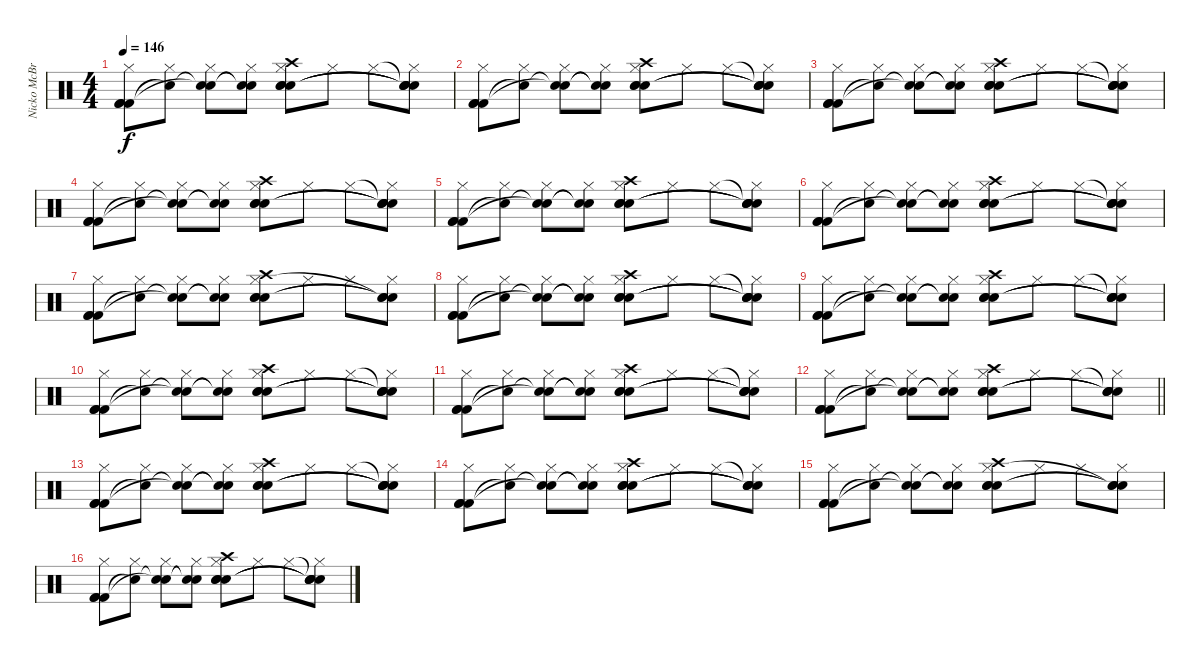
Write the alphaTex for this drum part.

\track ("Nicko McBrain" "Nicko McBr") {instrument percussion}
\staff {score}
\articulation defaults
\ts (4 4)
\tempo 146
\clef neutral
\ks c
("Hi-Hat (closed)" "Kick (hit) 2" "Kick (hit) 2" "Kick (hit) 2").8{dy f} ("Hi-Hat (closed)" "Snare (hit)"{t}).8 ("Hi-Hat (closed)" "Snare (hit)"{t} "Snare (hit)"{t}).8 ("Hi-Hat (closed)" "Snare (hit)"{t} "Snare (hit)"{t}).8 ("Crash high (hit)" "Hi-Hat (closed)" "Snare (hit) 2" "Snare (hit) 2" "Snare (hit) 2").8 "Hi-Hat (closed)".8 "Hi-Hat (closed)".8 ("Snare (hit)"{t} "Hi-Hat (closed)" "Snare (hit)"{t} "Snare (hit)"{t} "Snare (hit)"{t}).8 |
("Hi-Hat (closed)" "Kick (hit) 2" "Kick (hit) 2" "Kick (hit) 2").8 ("Hi-Hat (closed)" "Snare (hit)"{t}).8 ("Hi-Hat (closed)" "Snare (hit)"{t} "Snare (hit)"{t}).8 ("Hi-Hat (closed)" "Snare (hit)"{t} "Snare (hit)"{t}).8 ("Crash high (hit)" "Hi-Hat (closed)" "Snare (hit) 2" "Snare (hit) 2" "Snare (hit) 2").8 "Hi-Hat (closed)".8 "Hi-Hat (closed)".8 ("Snare (hit)"{t} "Hi-Hat (closed)" "Snare (hit)"{t} "Snare (hit)"{t} "Snare (hit)"{t}).8 |
("Hi-Hat (closed)" "Kick (hit) 2" "Kick (hit) 2" "Kick (hit) 2").8 ("Hi-Hat (closed)" "Snare (hit)"{t}).8 ("Hi-Hat (closed)" "Snare (hit)"{t} "Snare (hit)"{t}).8 ("Hi-Hat (closed)" "Snare (hit)"{t} "Snare (hit)"{t}).8 ("Crash high (hit)" "Hi-Hat (closed)" "Snare (hit) 2" "Snare (hit) 2" "Snare (hit) 2").8 "Hi-Hat (closed)".8 "Hi-Hat (closed)".8 ("Snare (hit)"{t} "Hi-Hat (closed)" "Snare (hit)"{t} "Snare (hit)"{t} "Snare (hit)"{t}).8 |
("Hi-Hat (closed)" "Kick (hit) 2" "Kick (hit) 2" "Kick (hit) 2").8 ("Hi-Hat (closed)" "Snare (hit)"{t}).8 ("Hi-Hat (closed)" "Snare (hit)"{t} "Snare (hit)"{t}).8 ("Hi-Hat (closed)" "Snare (hit)"{t} "Snare (hit)"{t}).8 ("Crash high (hit)" "Hi-Hat (closed)" "Snare (hit) 2" "Snare (hit) 2" "Snare (hit) 2").8 "Hi-Hat (closed)".8 "Hi-Hat (closed)".8 ("Snare (hit)"{t} "Hi-Hat (closed)" "Snare (hit)"{t} "Snare (hit)"{t} "Snare (hit)"{t}).8 |
("Hi-Hat (closed)" "Kick (hit) 2" "Kick (hit) 2" "Kick (hit) 2").8 ("Hi-Hat (closed)" "Snare (hit)"{t}).8 ("Hi-Hat (closed)" "Snare (hit)"{t} "Snare (hit)"{t}).8 ("Hi-Hat (closed)" "Snare (hit)"{t} "Snare (hit)"{t}).8 ("Crash high (hit)" "Hi-Hat (closed)" "Snare (hit) 2" "Snare (hit) 2" "Snare (hit) 2").8 "Hi-Hat (closed)".8 "Hi-Hat (closed)".8 ("Snare (hit)"{t} "Hi-Hat (closed)" "Snare (hit)"{t} "Snare (hit)"{t} "Snare (hit)"{t}).8 |
("Hi-Hat (closed)" "Kick (hit) 2" "Kick (hit) 2" "Kick (hit) 2").8 ("Hi-Hat (closed)" "Snare (hit)"{t}).8 ("Hi-Hat (closed)" "Snare (hit)"{t} "Snare (hit)"{t}).8 ("Hi-Hat (closed)" "Snare (hit)"{t} "Snare (hit)"{t}).8 ("Crash high (hit)" "Hi-Hat (closed)" "Snare (hit) 2" "Snare (hit) 2" "Snare (hit) 2").8 "Hi-Hat (closed)".8 "Hi-Hat (closed)".8 ("Snare (hit)"{t} "Hi-Hat (closed)" "Snare (hit)"{t} "Snare (hit)"{t} "Snare (hit)"{t}).8 |
("Hi-Hat (closed)" "Kick (hit) 2" "Kick (hit) 2" "Kick (hit) 2").8 ("Hi-Hat (closed)" "Snare (hit)"{t}).8 ("Hi-Hat (closed)" "Snare (hit)"{t} "Snare (hit)"{t}).8 ("Hi-Hat (closed)" "Snare (hit)"{t} "Snare (hit)"{t}).8 ("Crash high (hit)" "Hi-Hat (closed)" "Snare (hit) 2" "Snare (hit) 2" "Snare (hit) 2").8 "Hi-Hat (closed)".8 "Hi-Hat (closed)".8 ("Hi-Hat (closed)" "Snare (hit)"{t} "Snare (hit)"{t} "Snare (hit)"{t}).8 |
("Hi-Hat (closed)" "Kick (hit) 2" "Kick (hit) 2" "Kick (hit) 2").8 ("Hi-Hat (closed)" "Snare (hit)"{t}).8 ("Hi-Hat (closed)" "Snare (hit)"{t} "Snare (hit)"{t}).8 ("Hi-Hat (closed)" "Snare (hit)"{t} "Snare (hit)"{t}).8 ("Crash high (hit)" "Hi-Hat (closed)" "Snare (hit) 2" "Snare (hit) 2" "Snare (hit) 2").8 "Hi-Hat (closed)".8 "Hi-Hat (closed)".8 ("Snare (hit)"{t} "Hi-Hat (closed)" "Snare (hit)"{t} "Snare (hit)"{t} "Snare (hit)"{t}).8 |
("Hi-Hat (closed)" "Kick (hit) 2" "Kick (hit) 2" "Kick (hit) 2").8 ("Hi-Hat (closed)" "Snare (hit)"{t}).8 ("Hi-Hat (closed)" "Snare (hit)"{t} "Snare (hit)"{t}).8 ("Hi-Hat (closed)" "Snare (hit)"{t} "Snare (hit)"{t}).8 ("Crash high (hit)" "Hi-Hat (closed)" "Snare (hit) 2" "Snare (hit) 2" "Snare (hit) 2").8 "Hi-Hat (closed)".8 "Hi-Hat (closed)".8 ("Snare (hit)"{t} "Hi-Hat (closed)" "Snare (hit)"{t} "Snare (hit)"{t} "Snare (hit)"{t}).8 |
("Hi-Hat (closed)" "Kick (hit) 2" "Kick (hit) 2" "Kick (hit) 2").8 ("Hi-Hat (closed)" "Snare (hit)"{t}).8 ("Hi-Hat (closed)" "Snare (hit)"{t} "Snare (hit)"{t}).8 ("Hi-Hat (closed)" "Snare (hit)"{t} "Snare (hit)"{t}).8 ("Crash high (hit)" "Hi-Hat (closed)" "Snare (hit) 2" "Snare (hit) 2" "Snare (hit) 2").8 "Hi-Hat (closed)".8 "Hi-Hat (closed)".8 ("Snare (hit)"{t} "Hi-Hat (closed)" "Snare (hit)"{t} "Snare (hit)"{t} "Snare (hit)"{t}).8 |
("Hi-Hat (closed)" "Kick (hit) 2" "Kick (hit) 2" "Kick (hit) 2").8 ("Hi-Hat (closed)" "Snare (hit)"{t}).8 ("Hi-Hat (closed)" "Snare (hit)"{t} "Snare (hit)"{t}).8 ("Hi-Hat (closed)" "Snare (hit)"{t} "Snare (hit)"{t}).8 ("Crash high (hit)" "Hi-Hat (closed)" "Snare (hit) 2" "Snare (hit) 2" "Snare (hit) 2").8 "Hi-Hat (closed)".8 "Hi-Hat (closed)".8 ("Snare (hit)"{t} "Hi-Hat (closed)" "Snare (hit)"{t} "Snare (hit)"{t} "Snare (hit)"{t}).8 |
\barLineRight lightlight
("Hi-Hat (closed)" "Kick (hit) 2" "Kick (hit) 2" "Kick (hit) 2").8 ("Hi-Hat (closed)" "Snare (hit)"{t}).8 ("Hi-Hat (closed)" "Snare (hit)"{t} "Snare (hit)"{t}).8 ("Hi-Hat (closed)" "Snare (hit)"{t} "Snare (hit)"{t}).8 ("Crash high (hit)" "Hi-Hat (closed)" "Snare (hit) 2" "Snare (hit) 2" "Snare (hit) 2").8 "Hi-Hat (closed)".8 "Hi-Hat (closed)".8 ("Snare (hit)"{t} "Hi-Hat (closed)" "Snare (hit)"{t} "Snare (hit)"{t} "Snare (hit)"{t}).8 |
("Hi-Hat (closed)" "Kick (hit) 2" "Kick (hit) 2" "Kick (hit) 2").8 ("Hi-Hat (closed)" "Snare (hit)"{t}).8 ("Hi-Hat (closed)" "Snare (hit)"{t} "Snare (hit)"{t}).8 ("Hi-Hat (closed)" "Snare (hit)"{t} "Snare (hit)"{t}).8 ("Crash high (hit)" "Hi-Hat (closed)" "Snare (hit) 2" "Snare (hit) 2" "Snare (hit) 2").8 "Hi-Hat (closed)".8 "Hi-Hat (closed)".8 ("Snare (hit)"{t} "Hi-Hat (closed)" "Snare (hit)"{t} "Snare (hit)"{t} "Snare (hit)"{t}).8 |
("Hi-Hat (closed)" "Kick (hit) 2" "Kick (hit) 2" "Kick (hit) 2").8 ("Hi-Hat (closed)" "Snare (hit)"{t}).8 ("Hi-Hat (closed)" "Snare (hit)"{t} "Snare (hit)"{t}).8 ("Hi-Hat (closed)" "Snare (hit)"{t} "Snare (hit)"{t}).8 ("Crash high (hit)" "Hi-Hat (closed)" "Snare (hit) 2" "Snare (hit) 2" "Snare (hit) 2").8 "Hi-Hat (closed)".8 "Hi-Hat (closed)".8 ("Snare (hit)"{t} "Hi-Hat (closed)" "Snare (hit)"{t} "Snare (hit)"{t} "Snare (hit)"{t}).8 |
("Hi-Hat (closed)" "Kick (hit) 2" "Kick (hit) 2" "Kick (hit) 2").8 ("Hi-Hat (closed)" "Snare (hit)"{t}).8 ("Hi-Hat (closed)" "Snare (hit)"{t} "Snare (hit)"{t}).8 ("Hi-Hat (closed)" "Snare (hit)"{t} "Snare (hit)"{t}).8 ("Crash high (hit)" "Hi-Hat (closed)" "Snare (hit) 2" "Snare (hit) 2" "Snare (hit) 2").8 "Hi-Hat (closed)".8 "Hi-Hat (closed)".8 ("Hi-Hat (closed)" "Snare (hit)"{t} "Snare (hit)"{t} "Snare (hit)"{t}).8 |
("Hi-Hat (closed)" "Kick (hit) 2" "Kick (hit) 2" "Kick (hit) 2").8 ("Hi-Hat (closed)" "Snare (hit)"{t}).8 ("Hi-Hat (closed)" "Snare (hit)"{t} "Snare (hit)"{t}).8 ("Hi-Hat (closed)" "Snare (hit)"{t} "Snare (hit)"{t}).8 ("Crash high (hit)" "Hi-Hat (closed)" "Snare (hit) 2" "Snare (hit) 2" "Snare (hit) 2").8 "Hi-Hat (closed)".8 "Hi-Hat (closed)".8 ("Snare (hit)"{t} "Hi-Hat (closed)" "Snare (hit)"{t} "Snare (hit)"{t} "Snare (hit)"{t}).8
